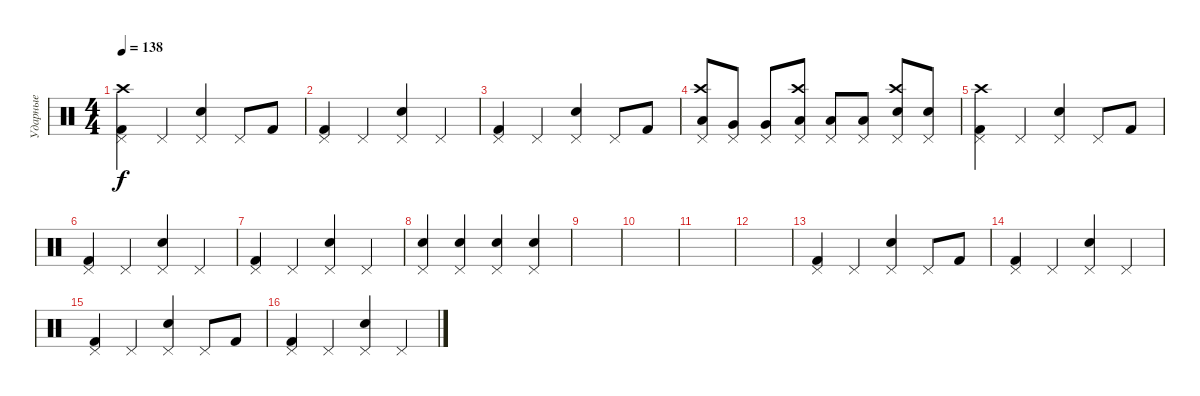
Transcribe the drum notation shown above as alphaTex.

\track ("Ударные" "Ударные") {instrument percussion}
\staff {score}
\articulation defaults
\ts (4 4)
\tempo 138
\clef neutral
\ks c
("Kick (hit) 2" "Pedal Hi-Hat (hit)" "Crash high (hit)").4{dy f} "Pedal Hi-Hat (hit)".4 ("Electric Snare (hit)" "Pedal Hi-Hat (hit)").4 "Pedal Hi-Hat (hit)".8 "Kick (hit) 2".8 |
("Kick (hit) 2" "Pedal Hi-Hat (hit)").4 "Pedal Hi-Hat (hit)".4 ("Electric Snare (hit)" "Pedal Hi-Hat (hit)").4 "Pedal Hi-Hat (hit)".4 |
("Kick (hit) 2" "Pedal Hi-Hat (hit)").4 "Pedal Hi-Hat (hit)".4 ("Electric Snare (hit)" "Pedal Hi-Hat (hit)").4 "Pedal Hi-Hat (hit)".8 "Kick (hit) 2".8 |
("Pedal Hi-Hat (hit)" "Low Tom (hit)" "Crash high (hit)").8 ("Pedal Hi-Hat (hit)" "Very Low Tom (hit)").8 ("Pedal Hi-Hat (hit)" "Very Low Tom (hit)").8 ("Pedal Hi-Hat (hit)" "Low Tom (hit)" "Crash high (hit)").8 ("Pedal Hi-Hat (hit)" "Low Floor Tom (hit)").8 ("Pedal Hi-Hat (hit)" "Low Floor Tom (hit)").8 ("Pedal Hi-Hat (hit)" "Snare (hit) 2" "Crash high (hit)").8 ("Pedal Hi-Hat (hit)" "Snare (hit) 2").8 |
("Kick (hit) 2" "Pedal Hi-Hat (hit)" "Crash high (hit)").4 "Pedal Hi-Hat (hit)".4 ("Electric Snare (hit)" "Pedal Hi-Hat (hit)").4 "Pedal Hi-Hat (hit)".8 "Kick (hit) 2".8 |
("Kick (hit) 2" "Pedal Hi-Hat (hit)").4 "Pedal Hi-Hat (hit)".4 ("Electric Snare (hit)" "Pedal Hi-Hat (hit)").4 "Pedal Hi-Hat (hit)".4 |
("Kick (hit) 2" "Pedal Hi-Hat (hit)").4 "Pedal Hi-Hat (hit)".4 ("Electric Snare (hit)" "Pedal Hi-Hat (hit)").4 "Pedal Hi-Hat (hit)".4 |
("Pedal Hi-Hat (hit)" "Snare (hit) 2").4 ("Pedal Hi-Hat (hit)" "Snare (hit) 2").4 ("Pedal Hi-Hat (hit)" "Snare (hit) 2").4 ("Pedal Hi-Hat (hit)" "Snare (hit) 2").4 |
|
|
|
|
("Kick (hit) 2" "Pedal Hi-Hat (hit)").4 "Pedal Hi-Hat (hit)".4 ("Electric Snare (hit)" "Pedal Hi-Hat (hit)").4 "Pedal Hi-Hat (hit)".8 "Kick (hit) 2".8 |
("Kick (hit) 2" "Pedal Hi-Hat (hit)").4 "Pedal Hi-Hat (hit)".4 ("Electric Snare (hit)" "Pedal Hi-Hat (hit)").4 "Pedal Hi-Hat (hit)".4 |
("Kick (hit) 2" "Pedal Hi-Hat (hit)").4 "Pedal Hi-Hat (hit)".4 ("Electric Snare (hit)" "Pedal Hi-Hat (hit)").4 "Pedal Hi-Hat (hit)".8 "Kick (hit) 2".8 |
("Kick (hit) 2" "Pedal Hi-Hat (hit)").4 "Pedal Hi-Hat (hit)".4 ("Electric Snare (hit)" "Pedal Hi-Hat (hit)").4 "Pedal Hi-Hat (hit)".4
